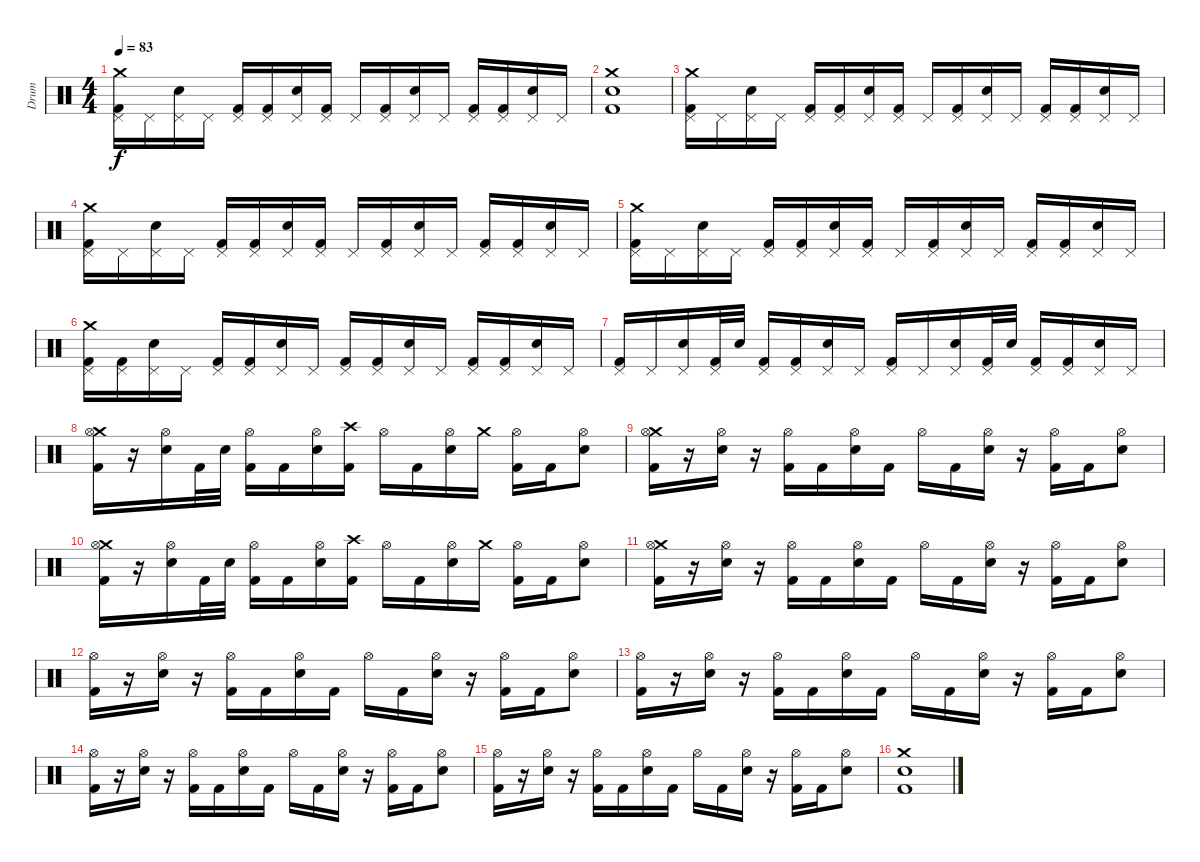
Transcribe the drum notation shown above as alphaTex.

\track ("Drum" "Drum") {instrument percussion}
\staff {score}
\articulation defaults
\ts (4 4)
\tempo 83
\clef neutral
\ks c
("Crash medium (hit)" "Pedal Hi-Hat (hit)" "Kick (hit) 2").16{dy f} "Pedal Hi-Hat (hit)".16 ("Snare (hit) 2" "Pedal Hi-Hat (hit)").16 "Pedal Hi-Hat (hit)".16 ("Pedal Hi-Hat (hit)" "Kick (hit) 2").16 ("Pedal Hi-Hat (hit)" "Kick (hit) 2").16 ("Snare (hit) 2" "Pedal Hi-Hat (hit)").16 ("Pedal Hi-Hat (hit)" "Kick (hit) 2").16 "Pedal Hi-Hat (hit)".16 ("Pedal Hi-Hat (hit)" "Kick (hit) 2").16 ("Snare (hit) 2" "Pedal Hi-Hat (hit)").16 "Pedal Hi-Hat (hit)".16 ("Pedal Hi-Hat (hit)" "Kick (hit) 2").16 ("Pedal Hi-Hat (hit)" "Kick (hit) 2").16 ("Snare (hit) 2" "Pedal Hi-Hat (hit)").16 "Pedal Hi-Hat (hit)".16 |
("Crash medium (hit)" "Snare (hit) 2" "Kick (hit) 2").1 |
("Crash medium (hit)" "Pedal Hi-Hat (hit)" "Kick (hit) 2").16 "Pedal Hi-Hat (hit)".16 ("Snare (hit) 2" "Pedal Hi-Hat (hit)").16 "Pedal Hi-Hat (hit)".16 ("Pedal Hi-Hat (hit)" "Kick (hit) 2").16 ("Pedal Hi-Hat (hit)" "Kick (hit) 2").16 ("Snare (hit) 2" "Pedal Hi-Hat (hit)").16 ("Pedal Hi-Hat (hit)" "Kick (hit) 2").16 "Pedal Hi-Hat (hit)".16 ("Pedal Hi-Hat (hit)" "Kick (hit) 2").16 ("Snare (hit) 2" "Pedal Hi-Hat (hit)").16 "Pedal Hi-Hat (hit)".16 ("Pedal Hi-Hat (hit)" "Kick (hit) 2").16 ("Pedal Hi-Hat (hit)" "Kick (hit) 2").16 ("Snare (hit) 2" "Pedal Hi-Hat (hit)").16 "Pedal Hi-Hat (hit)".16 |
("Crash medium (hit)" "Pedal Hi-Hat (hit)" "Kick (hit) 2").16 "Pedal Hi-Hat (hit)".16 ("Snare (hit) 2" "Pedal Hi-Hat (hit)").16 "Pedal Hi-Hat (hit)".16 ("Pedal Hi-Hat (hit)" "Kick (hit) 2").16 ("Pedal Hi-Hat (hit)" "Kick (hit) 2").16 ("Snare (hit) 2" "Pedal Hi-Hat (hit)").16 ("Pedal Hi-Hat (hit)" "Kick (hit) 2").16 "Pedal Hi-Hat (hit)".16 ("Pedal Hi-Hat (hit)" "Kick (hit) 2").16 ("Snare (hit) 2" "Pedal Hi-Hat (hit)").16 "Pedal Hi-Hat (hit)".16 ("Pedal Hi-Hat (hit)" "Kick (hit) 2").16 ("Pedal Hi-Hat (hit)" "Kick (hit) 2").16 ("Snare (hit) 2" "Pedal Hi-Hat (hit)").16 "Pedal Hi-Hat (hit)".16 |
("Crash medium (hit)" "Pedal Hi-Hat (hit)" "Kick (hit) 2").16 "Pedal Hi-Hat (hit)".16 ("Snare (hit) 2" "Pedal Hi-Hat (hit)").16 "Pedal Hi-Hat (hit)".16 ("Pedal Hi-Hat (hit)" "Kick (hit) 2").16 ("Pedal Hi-Hat (hit)" "Kick (hit) 2").16 ("Snare (hit) 2" "Pedal Hi-Hat (hit)").16 ("Pedal Hi-Hat (hit)" "Kick (hit) 2").16 "Pedal Hi-Hat (hit)".16 ("Pedal Hi-Hat (hit)" "Kick (hit) 2").16 ("Snare (hit) 2" "Pedal Hi-Hat (hit)").16 "Pedal Hi-Hat (hit)".16 ("Pedal Hi-Hat (hit)" "Kick (hit) 2").16 ("Pedal Hi-Hat (hit)" "Kick (hit) 2").16 ("Snare (hit) 2" "Pedal Hi-Hat (hit)").16 "Pedal Hi-Hat (hit)".16 |
("Crash medium (hit)" "Pedal Hi-Hat (hit)" "Kick (hit) 2").16 ("Pedal Hi-Hat (hit)" "Kick (hit) 2").16 ("Snare (hit) 2" "Pedal Hi-Hat (hit)").16 "Pedal Hi-Hat (hit)".16 ("Pedal Hi-Hat (hit)" "Kick (hit) 2").16 ("Pedal Hi-Hat (hit)" "Kick (hit) 2").16 ("Snare (hit) 2" "Pedal Hi-Hat (hit)").16 "Pedal Hi-Hat (hit)".16 ("Pedal Hi-Hat (hit)" "Kick (hit) 2").16 ("Pedal Hi-Hat (hit)" "Kick (hit) 2").16 ("Snare (hit) 2" "Pedal Hi-Hat (hit)").16 "Pedal Hi-Hat (hit)".16 ("Pedal Hi-Hat (hit)" "Kick (hit) 2").16 ("Pedal Hi-Hat (hit)" "Kick (hit) 2").16 ("Snare (hit) 2" "Pedal Hi-Hat (hit)").16 "Pedal Hi-Hat (hit)".16 |
("Pedal Hi-Hat (hit)" "Kick (hit) 2").16 "Pedal Hi-Hat (hit)".16 ("Snare (hit) 2" "Pedal Hi-Hat (hit)").16 ("Pedal Hi-Hat (hit)" "Kick (hit) 2").32 "Snare (hit) 2".32 ("Pedal Hi-Hat (hit)" "Kick (hit) 2").16 ("Pedal Hi-Hat (hit)" "Kick (hit) 2").16 ("Snare (hit) 2" "Pedal Hi-Hat (hit)").16 "Pedal Hi-Hat (hit)".16 ("Pedal Hi-Hat (hit)" "Kick (hit) 2").16 "Pedal Hi-Hat (hit)".16 ("Snare (hit) 2" "Pedal Hi-Hat (hit)").16 ("Pedal Hi-Hat (hit)" "Kick (hit) 2").32 "Snare (hit) 2".32 ("Pedal Hi-Hat (hit)" "Kick (hit) 2").16 ("Pedal Hi-Hat (hit)" "Kick (hit) 2").16 ("Snare (hit) 2" "Pedal Hi-Hat (hit)").16 "Pedal Hi-Hat (hit)".16 |
("Crash medium (hit)" "Hi-Hat (open)" "Kick (hit) 2").16 r.16 ("Hi-Hat (open)" "Snare (hit) 2").16 "Kick (hit) 2".32 "Snare (hit) 2".32 ("Hi-Hat (open)" "Kick (hit) 2").16 "Kick (hit) 2".16 ("Hi-Hat (open)" "Snare (hit) 2").16 ("Crash high (hit)" "Kick (hit) 2").16 "Hi-Hat (open)".16 "Kick (hit) 2".16 ("Hi-Hat (open)" "Snare (hit) 2").16 "Crash medium (hit)".16 ("Hi-Hat (open)" "Kick (hit) 2").16 "Kick (hit) 2".16 ("Hi-Hat (open)" "Snare (hit) 2").8 |
("Crash medium (hit)" "Hi-Hat (open)" "Kick (hit) 2").16 r.16 ("Hi-Hat (open)" "Snare (hit) 2").16 r.16 ("Hi-Hat (open)" "Kick (hit) 2").16 "Kick (hit) 2".16 ("Hi-Hat (open)" "Snare (hit) 2").16 "Kick (hit) 2".16 "Hi-Hat (open)".16 "Kick (hit) 2".16 ("Hi-Hat (open)" "Snare (hit) 2").16 r.16 ("Hi-Hat (open)" "Kick (hit) 2").16 "Kick (hit) 2".16 ("Hi-Hat (open)" "Snare (hit) 2").8 |
("Crash medium (hit)" "Hi-Hat (open)" "Kick (hit) 2").16 r.16 ("Hi-Hat (open)" "Snare (hit) 2").16 "Kick (hit) 2".32 "Snare (hit) 2".32 ("Hi-Hat (open)" "Kick (hit) 2").16 "Kick (hit) 2".16 ("Hi-Hat (open)" "Snare (hit) 2").16 ("Crash high (hit)" "Kick (hit) 2").16 "Hi-Hat (open)".16 "Kick (hit) 2".16 ("Hi-Hat (open)" "Snare (hit) 2").16 "Crash medium (hit)".16 ("Hi-Hat (open)" "Kick (hit) 2").16 "Kick (hit) 2".16 ("Hi-Hat (open)" "Snare (hit) 2").8 |
("Crash medium (hit)" "Hi-Hat (open)" "Kick (hit) 2").16 r.16 ("Hi-Hat (open)" "Snare (hit) 2").16 r.16 ("Hi-Hat (open)" "Kick (hit) 2").16 "Kick (hit) 2".16 ("Hi-Hat (open)" "Snare (hit) 2").16 "Kick (hit) 2".16 "Hi-Hat (open)".16 "Kick (hit) 2".16 ("Hi-Hat (open)" "Snare (hit) 2").16 r.16 ("Hi-Hat (open)" "Kick (hit) 2").16 "Kick (hit) 2".16 ("Hi-Hat (open)" "Snare (hit) 2").8 |
("Hi-Hat (open)" "Kick (hit) 2").16 r.16 ("Hi-Hat (open)" "Snare (hit) 2").16 r.16 ("Hi-Hat (open)" "Kick (hit) 2").16 "Kick (hit) 2".16 ("Hi-Hat (open)" "Snare (hit) 2").16 "Kick (hit) 2".16 "Hi-Hat (open)".16 "Kick (hit) 2".16 ("Hi-Hat (open)" "Snare (hit) 2").16 r.16 ("Hi-Hat (open)" "Kick (hit) 2").16 "Kick (hit) 2".16 ("Hi-Hat (open)" "Snare (hit) 2").8 |
("Hi-Hat (open)" "Kick (hit) 2").16 r.16 ("Hi-Hat (open)" "Snare (hit) 2").16 r.16 ("Hi-Hat (open)" "Kick (hit) 2").16 "Kick (hit) 2".16 ("Hi-Hat (open)" "Snare (hit) 2").16 "Kick (hit) 2".16 "Hi-Hat (open)".16 "Kick (hit) 2".16 ("Hi-Hat (open)" "Snare (hit) 2").16 r.16 ("Hi-Hat (open)" "Kick (hit) 2").16 "Kick (hit) 2".16 ("Hi-Hat (open)" "Snare (hit) 2").8 |
("Hi-Hat (open)" "Kick (hit) 2").16 r.16 ("Hi-Hat (open)" "Snare (hit) 2").16 r.16 ("Hi-Hat (open)" "Kick (hit) 2").16 "Kick (hit) 2".16 ("Hi-Hat (open)" "Snare (hit) 2").16 "Kick (hit) 2".16 "Hi-Hat (open)".16 "Kick (hit) 2".16 ("Hi-Hat (open)" "Snare (hit) 2").16 r.16 ("Hi-Hat (open)" "Kick (hit) 2").16 "Kick (hit) 2".16 ("Hi-Hat (open)" "Snare (hit) 2").8 |
("Hi-Hat (open)" "Kick (hit) 2").16 r.16 ("Hi-Hat (open)" "Snare (hit) 2").16 r.16 ("Hi-Hat (open)" "Kick (hit) 2").16 "Kick (hit) 2".16 ("Hi-Hat (open)" "Snare (hit) 2").16 "Kick (hit) 2".16 "Hi-Hat (open)".16 "Kick (hit) 2".16 ("Hi-Hat (open)" "Snare (hit) 2").16 r.16 ("Hi-Hat (open)" "Kick (hit) 2").16 "Kick (hit) 2".16 ("Hi-Hat (open)" "Snare (hit) 2").8 |
("Crash medium (hit)" "Snare (hit) 2" "Kick (hit) 2").1
